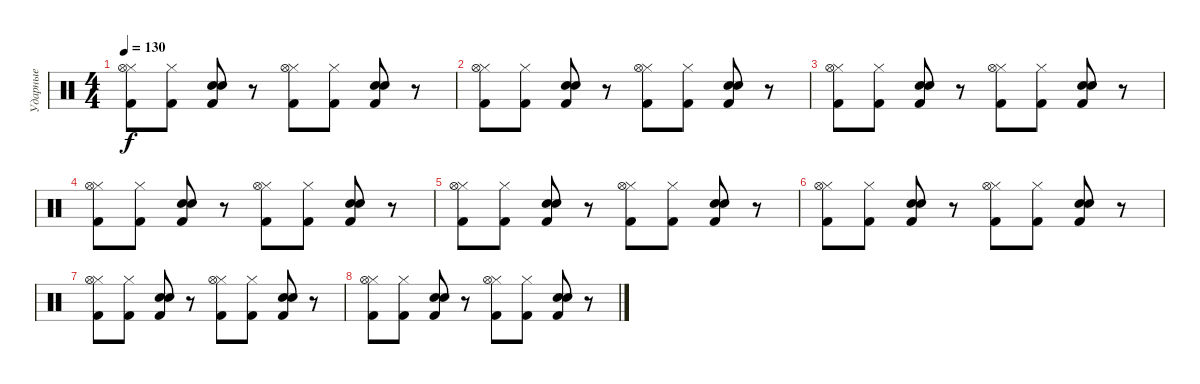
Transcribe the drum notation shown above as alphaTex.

\track ("Ударные" "Ударные") {instrument percussion}
\staff {score}
\articulation defaults
\ts (4 4)
\tempo 130
\clef neutral
\ks c
("Hi-Hat (closed)" "Kick (hit) 2" "Hi-Hat (open)").8{dy f} ("Hi-Hat (closed)" "Kick (hit) 2").8 ("Snare (hit) 2" "Kick (hit) 2" "Electric Snare (hit)").8 r.8 ("Hi-Hat (closed)" "Kick (hit) 2" "Hi-Hat (open)").8 ("Hi-Hat (closed)" "Kick (hit) 2").8 ("Snare (hit) 2" "Kick (hit) 2" "Electric Snare (hit)").8 r.8 |
("Hi-Hat (closed)" "Kick (hit) 2" "Hi-Hat (open)").8 ("Hi-Hat (closed)" "Kick (hit) 2").8 ("Snare (hit) 2" "Kick (hit) 2" "Electric Snare (hit)").8 r.8 ("Hi-Hat (closed)" "Kick (hit) 2" "Hi-Hat (open)").8 ("Hi-Hat (closed)" "Kick (hit) 2").8 ("Snare (hit) 2" "Kick (hit) 2" "Electric Snare (hit)").8 r.8 |
("Hi-Hat (closed)" "Kick (hit) 2" "Hi-Hat (open)").8 ("Hi-Hat (closed)" "Kick (hit) 2").8 ("Snare (hit) 2" "Kick (hit) 2" "Electric Snare (hit)").8 r.8 ("Hi-Hat (closed)" "Kick (hit) 2" "Hi-Hat (open)").8 ("Hi-Hat (closed)" "Kick (hit) 2").8 ("Snare (hit) 2" "Kick (hit) 2" "Electric Snare (hit)").8 r.8 |
("Hi-Hat (closed)" "Kick (hit) 2" "Hi-Hat (open)").8 ("Hi-Hat (closed)" "Kick (hit) 2").8 ("Snare (hit) 2" "Kick (hit) 2" "Electric Snare (hit)").8 r.8 ("Hi-Hat (closed)" "Kick (hit) 2" "Hi-Hat (open)").8 ("Hi-Hat (closed)" "Kick (hit) 2").8 ("Snare (hit) 2" "Kick (hit) 2" "Electric Snare (hit)").8 r.8 |
("Hi-Hat (closed)" "Kick (hit) 2" "Hi-Hat (open)").8 ("Hi-Hat (closed)" "Kick (hit) 2").8 ("Snare (hit) 2" "Kick (hit) 2" "Electric Snare (hit)").8 r.8 ("Hi-Hat (closed)" "Kick (hit) 2" "Hi-Hat (open)").8 ("Hi-Hat (closed)" "Kick (hit) 2").8 ("Snare (hit) 2" "Kick (hit) 2" "Electric Snare (hit)").8 r.8 |
("Hi-Hat (closed)" "Kick (hit) 2" "Hi-Hat (open)").8 ("Hi-Hat (closed)" "Kick (hit) 2").8 ("Snare (hit) 2" "Kick (hit) 2" "Electric Snare (hit)").8 r.8 ("Hi-Hat (closed)" "Kick (hit) 2" "Hi-Hat (open)").8 ("Hi-Hat (closed)" "Kick (hit) 2").8 ("Snare (hit) 2" "Kick (hit) 2" "Electric Snare (hit)").8 r.8 |
("Hi-Hat (closed)" "Kick (hit) 2" "Hi-Hat (open)").8 ("Hi-Hat (closed)" "Kick (hit) 2").8 ("Snare (hit) 2" "Kick (hit) 2" "Electric Snare (hit)").8 r.8 ("Hi-Hat (closed)" "Kick (hit) 2" "Hi-Hat (open)").8 ("Hi-Hat (closed)" "Kick (hit) 2").8 ("Snare (hit) 2" "Kick (hit) 2" "Electric Snare (hit)").8 r.8 |
("Hi-Hat (closed)" "Kick (hit) 2" "Hi-Hat (open)").8 ("Hi-Hat (closed)" "Kick (hit) 2").8 ("Snare (hit) 2" "Kick (hit) 2" "Electric Snare (hit)").8 r.8 ("Hi-Hat (closed)" "Kick (hit) 2" "Hi-Hat (open)").8 ("Hi-Hat (closed)" "Kick (hit) 2").8 ("Snare (hit) 2" "Kick (hit) 2" "Electric Snare (hit)").8 r.8
